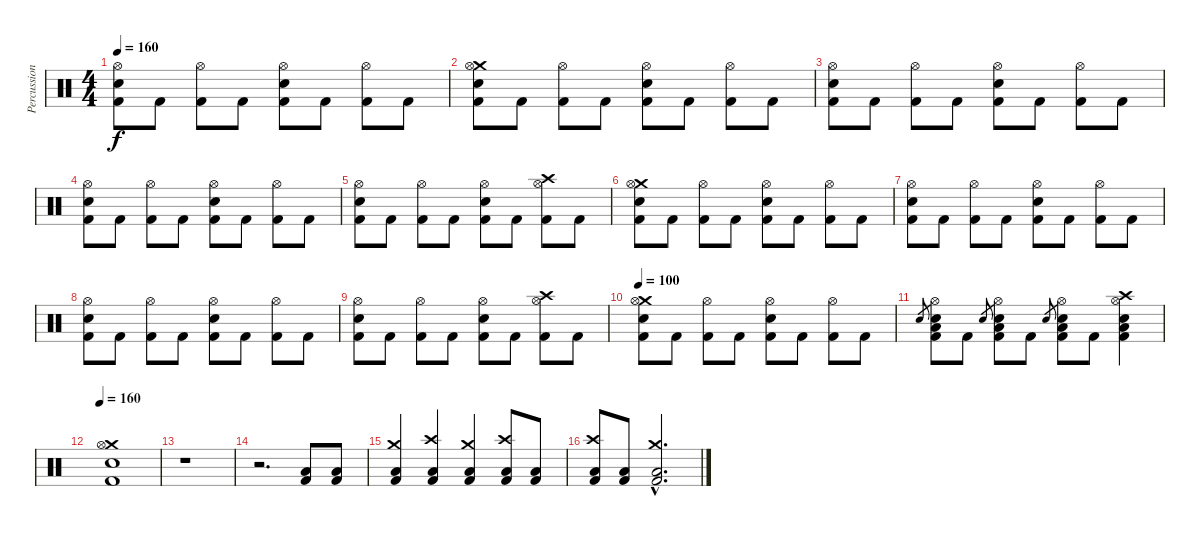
\track ("Percussion" "Percussion") {instrument percussion}
\staff {score}
\articulation defaults
\ts (4 4)
\tempo 160
\clef neutral
\ks c
("Hi-Hat (open)" "Electric Snare (hit)" "Kick (hit) 2").8{dy f} "Kick (hit) 2".8 ("Hi-Hat (open)" "Kick (hit) 2").8 "Kick (hit) 2".8 ("Hi-Hat (open)" "Electric Snare (hit)" "Kick (hit) 2").8 "Kick (hit) 2".8 ("Hi-Hat (open)" "Kick (hit) 2").8 "Kick (hit) 2".8 |
("Crash medium (hit)" "Hi-Hat (open)" "Electric Snare (hit)" "Kick (hit) 2").8 "Kick (hit) 2".8 ("Hi-Hat (open)" "Kick (hit) 2").8 "Kick (hit) 2".8 ("Hi-Hat (open)" "Electric Snare (hit)" "Kick (hit) 2").8 "Kick (hit) 2".8 ("Hi-Hat (open)" "Kick (hit) 2").8 "Kick (hit) 2".8 |
("Hi-Hat (open)" "Electric Snare (hit)" "Kick (hit) 2").8 "Kick (hit) 2".8 ("Hi-Hat (open)" "Kick (hit) 2").8 "Kick (hit) 2".8 ("Hi-Hat (open)" "Electric Snare (hit)" "Kick (hit) 2").8 "Kick (hit) 2".8 ("Hi-Hat (open)" "Kick (hit) 2").8 "Kick (hit) 2".8 |
("Hi-Hat (open)" "Electric Snare (hit)" "Kick (hit) 2").8 "Kick (hit) 2".8 ("Hi-Hat (open)" "Kick (hit) 2").8 "Kick (hit) 2".8 ("Hi-Hat (open)" "Electric Snare (hit)" "Kick (hit) 2").8 "Kick (hit) 2".8 ("Hi-Hat (open)" "Kick (hit) 2").8 "Kick (hit) 2".8 |
("Hi-Hat (open)" "Electric Snare (hit)" "Kick (hit) 2").8 "Kick (hit) 2".8 ("Hi-Hat (open)" "Kick (hit) 2").8 "Kick (hit) 2".8 ("Hi-Hat (open)" "Electric Snare (hit)" "Kick (hit) 2").8 "Kick (hit) 2".8 ("Crash high (hit)" "Hi-Hat (open)" "Kick (hit) 2").8 "Kick (hit) 2".8 |
("Crash medium (hit)" "Hi-Hat (open)" "Electric Snare (hit)" "Kick (hit) 2").8 "Kick (hit) 2".8 ("Hi-Hat (open)" "Kick (hit) 2").8 "Kick (hit) 2".8 ("Hi-Hat (open)" "Electric Snare (hit)" "Kick (hit) 2").8 "Kick (hit) 2".8 ("Hi-Hat (open)" "Kick (hit) 2").8 "Kick (hit) 2".8 |
("Hi-Hat (open)" "Electric Snare (hit)" "Kick (hit) 2").8 "Kick (hit) 2".8 ("Hi-Hat (open)" "Kick (hit) 2").8 "Kick (hit) 2".8 ("Hi-Hat (open)" "Electric Snare (hit)" "Kick (hit) 2").8 "Kick (hit) 2".8 ("Hi-Hat (open)" "Kick (hit) 2").8 "Kick (hit) 2".8 |
("Hi-Hat (open)" "Electric Snare (hit)" "Kick (hit) 2").8 "Kick (hit) 2".8 ("Hi-Hat (open)" "Kick (hit) 2").8 "Kick (hit) 2".8 ("Hi-Hat (open)" "Electric Snare (hit)" "Kick (hit) 2").8 "Kick (hit) 2".8 ("Hi-Hat (open)" "Kick (hit) 2").8 "Kick (hit) 2".8 |
("Hi-Hat (open)" "Electric Snare (hit)" "Kick (hit) 2").8 "Kick (hit) 2".8 ("Hi-Hat (open)" "Kick (hit) 2").8 "Kick (hit) 2".8 ("Hi-Hat (open)" "Electric Snare (hit)" "Kick (hit) 2").8 "Kick (hit) 2".8 ("Crash high (hit)" "Hi-Hat (open)" "Kick (hit) 2").8 "Kick (hit) 2".8 |
\tempo 100
("Crash medium (hit)" "Hi-Hat (open)" "Electric Snare (hit)" "Kick (hit) 2").8 "Kick (hit) 2".8 ("Hi-Hat (open)" "Kick (hit) 2").8 "Kick (hit) 2".8 ("Hi-Hat (open)" "Electric Snare (hit)" "Kick (hit) 2").8 "Kick (hit) 2".8 ("Hi-Hat (open)" "Kick (hit) 2").8 "Kick (hit) 2".8 |
"Electric Snare (hit)".8{gr} ("Hi-Hat (open)" "Low Floor Tom (hit)" "Electric Snare (hit)" "Kick (hit) 2").8 "Kick (hit) 2".8 "Electric Snare (hit)".8{gr} ("Hi-Hat (open)" "Low Floor Tom (hit)" "Electric Snare (hit)" "Kick (hit) 2").8 "Kick (hit) 2".8 "Electric Snare (hit)".8{gr} ("Hi-Hat (open)" "Low Floor Tom (hit)" "Electric Snare (hit)" "Kick (hit) 2").8 "Kick (hit) 2".8 ("Crash high (hit)" "Hi-Hat (open)" "Low Floor Tom (hit)" "Electric Snare (hit)" "Kick (hit) 2").4 |
\tempo 160
("Crash medium (hit)" "Hi-Hat (open)" "Electric Snare (hit)" "Kick (hit) 2").1 |
r.1 |
r.2{d} ("Low Floor Tom (hit)" "Kick (hit) 2").8 ("Low Floor Tom (hit)" "Kick (hit) 2").8 |
("Crash medium (hit)" "Low Floor Tom (hit)" "Kick (hit) 2").4 ("Crash high (hit)" "Low Floor Tom (hit)" "Kick (hit) 2").4 ("Crash medium (hit)" "Low Floor Tom (hit)" "Kick (hit) 2").4 ("Crash high (hit)" "Low Floor Tom (hit)" "Kick (hit) 2").8 ("Low Floor Tom (hit)" "Kick (hit) 2").8 |
("Crash high (hit)" "Low Floor Tom (hit)" "Kick (hit) 2").8 ("Low Floor Tom (hit)" "Kick (hit) 2").8 ("Crash medium (hit)"{hac} "Low Floor Tom (hit)"{hac} "Kick (hit) 2"{hac}).2{d}
